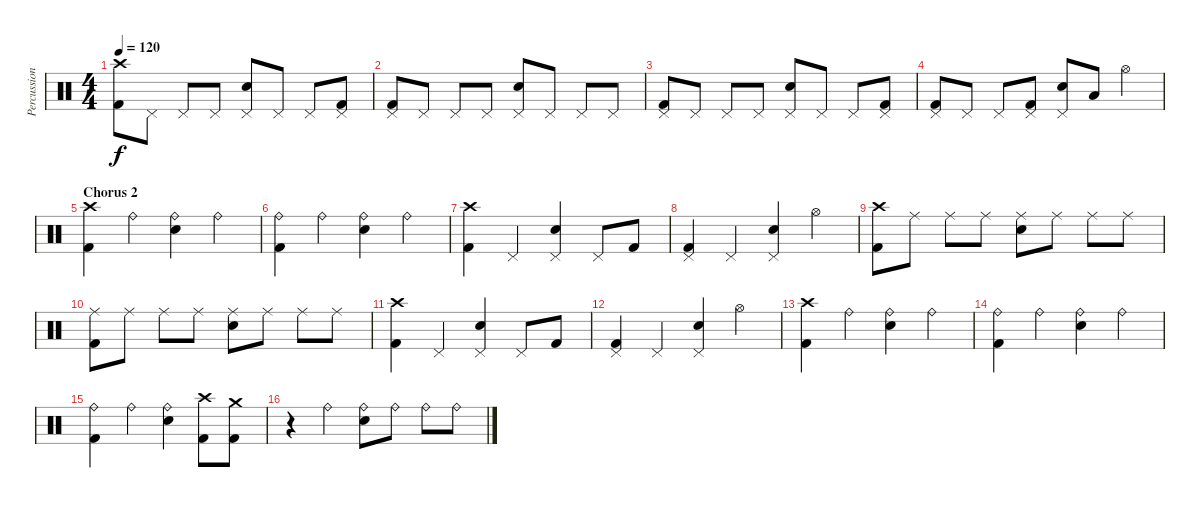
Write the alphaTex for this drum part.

\track ("Percussion" "Percussion") {instrument percussion}
\staff {score}
\articulation defaults
\ts (4 4)
\tempo 120
\clef neutral
\ks c
("Crash high (hit)" "Kick (hit) 2").8{dy f} "Pedal Hi-Hat (hit)".8 "Pedal Hi-Hat (hit)".8 "Pedal Hi-Hat (hit)".8 ("Pedal Hi-Hat (hit)" "Snare (hit) 2").8 "Pedal Hi-Hat (hit)".8 "Pedal Hi-Hat (hit)".8 ("Pedal Hi-Hat (hit)" "Kick (hit) 2").8 |
("Pedal Hi-Hat (hit)" "Kick (hit) 2").8 "Pedal Hi-Hat (hit)".8 "Pedal Hi-Hat (hit)".8 "Pedal Hi-Hat (hit)".8 ("Pedal Hi-Hat (hit)" "Snare (hit) 2").8 "Pedal Hi-Hat (hit)".8 "Pedal Hi-Hat (hit)".8 "Pedal Hi-Hat (hit)".8 |
("Pedal Hi-Hat (hit)" "Kick (hit) 2").8 "Pedal Hi-Hat (hit)".8 "Pedal Hi-Hat (hit)".8 "Pedal Hi-Hat (hit)".8 ("Pedal Hi-Hat (hit)" "Snare (hit) 2").8 "Pedal Hi-Hat (hit)".8 "Pedal Hi-Hat (hit)".8 ("Pedal Hi-Hat (hit)" "Kick (hit) 2").8 |
("Pedal Hi-Hat (hit)" "Kick (hit) 2").8 "Pedal Hi-Hat (hit)".8 "Pedal Hi-Hat (hit)".8 ("Pedal Hi-Hat (hit)" "Kick (hit) 2").8 ("Pedal Hi-Hat (hit)" "Snare (hit) 2").8 "Low Tom (hit)".8 "Hi-Hat (open)".4 |
\section ("" "Chorus 2")
("Crash high (hit)" "Kick (hit) 2").4 "Ride (bell)".4 ("Ride (bell)" "Snare (hit) 2").4 "Ride (bell)".4 |
("Ride (bell)" "Kick (hit) 2").4 "Ride (bell)".4 ("Ride (bell)" "Snare (hit) 2").4 "Ride (bell)".4 |
("Crash high (hit)" "Kick (hit) 2").4 "Pedal Hi-Hat (hit)".4 ("Pedal Hi-Hat (hit)" "Snare (hit) 2").4 "Pedal Hi-Hat (hit)".8 "Kick (hit) 2".8 |
("Pedal Hi-Hat (hit)" "Kick (hit) 2").4 "Pedal Hi-Hat (hit)".4 ("Pedal Hi-Hat (hit)" "Snare (hit) 2").4 "Hi-Hat (open)".4 |
("Crash high (hit)" "Kick (hit) 2").8 "Ride (middle)".8 "Ride (middle)".8 "Ride (middle)".8 ("Ride (middle)" "Snare (hit) 2").8 "Ride (middle)".8 "Ride (middle)".8 "Ride (middle)".8 |
("Ride (middle)" "Kick (hit) 2").8 "Ride (middle)".8 "Ride (middle)".8 "Ride (middle)".8 ("Ride (middle)" "Snare (hit) 2").8 "Ride (middle)".8 "Ride (middle)".8 "Ride (middle)".8 |
("Crash high (hit)" "Kick (hit) 2").4 "Pedal Hi-Hat (hit)".4 ("Pedal Hi-Hat (hit)" "Snare (hit) 2").4 "Pedal Hi-Hat (hit)".8 "Kick (hit) 2".8 |
("Pedal Hi-Hat (hit)" "Kick (hit) 2").4 "Pedal Hi-Hat (hit)".4 ("Pedal Hi-Hat (hit)" "Snare (hit) 2").4 "Hi-Hat (open)".4 |
("Crash high (hit)" "Kick (hit) 2").4 "Ride (bell)".4 ("Ride (bell)" "Snare (hit) 2").4 "Ride (bell)".4 |
("Ride (bell)" "Kick (hit) 2").4 "Ride (bell)".4 ("Ride (bell)" "Snare (hit) 2").4 "Ride (bell)".4 |
("Ride (bell)" "Kick (hit) 2").4 "Ride (bell)".4 ("Ride (bell)" "Snare (hit) 2").4 ("Crash high (hit)" "Kick (hit) 2").8 ("Crash medium (hit)" "Kick (hit) 2").8 |
r.4 "Ride (bell)".4 ("Ride (bell)" "Snare (hit) 2").8 "Ride (bell)".8 "Ride (bell)".8 "Ride (bell)".8
